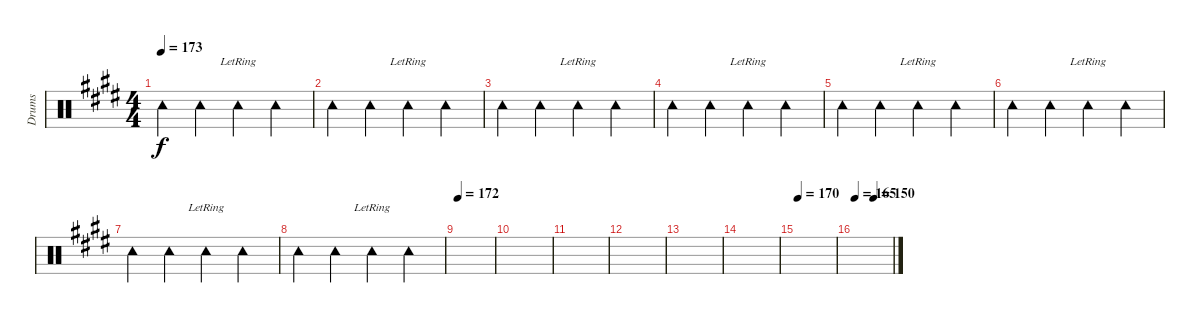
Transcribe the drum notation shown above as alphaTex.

\track ("Drums" "Drums") {instrument percussion}
\staff {score}
\articulation defaults
\ts (4 4)
\tempo 173
\clef neutral
\ks e "Tambourine (hit)".4{dy f} "Tambourine (hit)".4 "Tambourine (hit)"{lr}.4 "Tambourine (hit)".4
|
"Tambourine (hit)".4 "Tambourine (hit)".4 "Tambourine (hit)"{lr}.4 "Tambourine (hit)".4 |
"Tambourine (hit)".4 "Tambourine (hit)".4 "Tambourine (hit)"{lr}.4 "Tambourine (hit)".4 |
"Tambourine (hit)".4 "Tambourine (hit)".4 "Tambourine (hit)"{lr}.4 "Tambourine (hit)".4 |
"Tambourine (hit)".4 "Tambourine (hit)".4 "Tambourine (hit)"{lr}.4 "Tambourine (hit)".4 |
"Tambourine (hit)".4 "Tambourine (hit)".4 "Tambourine (hit)"{lr}.4 "Tambourine (hit)".4 |
"Tambourine (hit)".4 "Tambourine (hit)".4 "Tambourine (hit)"{lr}.4 "Tambourine (hit)".4 |
"Tambourine (hit)".4 "Tambourine (hit)".4 "Tambourine (hit)"{lr}.4 "Tambourine (hit)".4 |
\tempo 172
|
|
|
|
|
|
\tempo 170
|
\tempo 165
\tempo (150 0.5)
